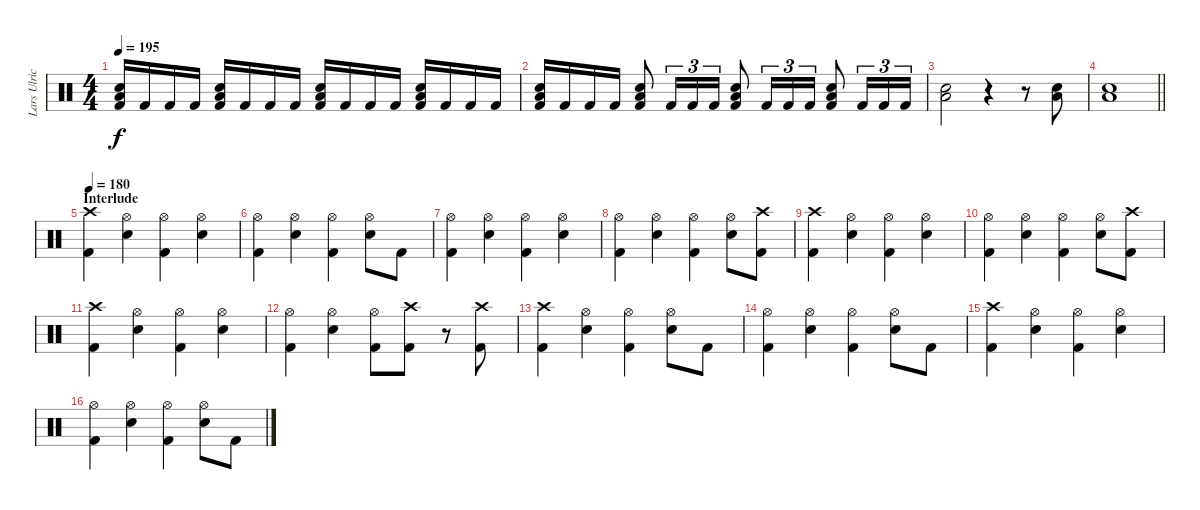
\track ("Lars Ulrich" "Lars Ulric") {instrument percussion}
\staff {score}
\articulation defaults
\ts (4 4)
\tempo 195
\clef neutral
\ks c
("Low Floor Tom (hit)" "Electric Snare (hit)" "Kick (hit) 2").16{dy f} "Kick (hit) 2".16 "Kick (hit) 2".16 "Kick (hit) 2".16 ("Low Floor Tom (hit)" "Electric Snare (hit)" "Kick (hit) 2").16 "Kick (hit) 2".16 "Kick (hit) 2".16 "Kick (hit) 2".16 ("Low Floor Tom (hit)" "Electric Snare (hit)" "Kick (hit) 2").16 "Kick (hit) 2".16 "Kick (hit) 2".16 "Kick (hit) 2".16 ("Low Floor Tom (hit)" "Electric Snare (hit)" "Kick (hit) 2").16 "Kick (hit) 2".16 "Kick (hit) 2".16 "Kick (hit) 2".16 |
("Low Floor Tom (hit)" "Electric Snare (hit)" "Kick (hit) 2").16 "Kick (hit) 2".16 "Kick (hit) 2".16 "Kick (hit) 2".16 ("Low Floor Tom (hit)" "Electric Snare (hit)" "Kick (hit) 2").8 "Kick (hit) 2".16{tu (3 2)} "Kick (hit) 2".16{tu (3 2)} "Kick (hit) 2".16{tu (3 2)} ("Low Floor Tom (hit)" "Electric Snare (hit)" "Kick (hit) 2").8 "Kick (hit) 2".16{tu (3 2)} "Kick (hit) 2".16{tu (3 2)} "Kick (hit) 2".16{tu (3 2)} ("Low Floor Tom (hit)" "Electric Snare (hit)" "Kick (hit) 2").8 "Kick (hit) 2".16{tu (3 2)} "Kick (hit) 2".16{tu (3 2)} "Kick (hit) 2".16{tu (3 2)} |
("Low Floor Tom (hit)" "Electric Snare (hit)").2 r.4 r.8 ("Low Floor Tom (hit)" "Electric Snare (hit)").8 |
\barLineRight lightlight
("Low Floor Tom (hit)" "Electric Snare (hit)").1 |
\section ("" "Interlude")
\tempo 180
("Crash high (hit)" "Kick (hit) 2").4 ("Hi-Hat (open)" "Electric Snare (hit)").4 ("Hi-Hat (open)" "Kick (hit) 2").4 ("Hi-Hat (open)" "Electric Snare (hit)").4 |
("Hi-Hat (open)" "Kick (hit) 2").4 ("Hi-Hat (open)" "Electric Snare (hit)").4 ("Hi-Hat (open)" "Kick (hit) 2").4 ("Hi-Hat (open)" "Electric Snare (hit)").8 "Kick (hit) 2".8 |
("Hi-Hat (open)" "Kick (hit) 2").4 ("Hi-Hat (open)" "Electric Snare (hit)").4 ("Hi-Hat (open)" "Kick (hit) 2").4 ("Hi-Hat (open)" "Electric Snare (hit)").4 |
("Hi-Hat (open)" "Kick (hit) 2").4 ("Hi-Hat (open)" "Electric Snare (hit)").4 ("Hi-Hat (open)" "Kick (hit) 2").4 ("Hi-Hat (open)" "Electric Snare (hit)").8 ("Crash high (hit)" "Kick (hit) 2").8 |
("Crash high (hit)" "Kick (hit) 2").4 ("Hi-Hat (open)" "Electric Snare (hit)").4 ("Hi-Hat (open)" "Kick (hit) 2").4 ("Hi-Hat (open)" "Electric Snare (hit)").4 |
("Hi-Hat (open)" "Kick (hit) 2").4 ("Hi-Hat (open)" "Electric Snare (hit)").4 ("Hi-Hat (open)" "Kick (hit) 2").4 ("Hi-Hat (open)" "Electric Snare (hit)").8 ("Crash high (hit)" "Kick (hit) 2").8 |
("Crash high (hit)" "Kick (hit) 2").4 ("Hi-Hat (open)" "Electric Snare (hit)").4 ("Hi-Hat (open)" "Kick (hit) 2").4 ("Hi-Hat (open)" "Electric Snare (hit)").4 |
("Hi-Hat (open)" "Kick (hit) 2").4 ("Hi-Hat (open)" "Electric Snare (hit)").4 ("Hi-Hat (open)" "Kick (hit) 2").8 ("Crash high (hit)" "Kick (hit) 2").8 r.8{volume 0} ("Crash high (hit)" "Kick (hit) 2").8{volume 14} |
("Crash high (hit)" "Kick (hit) 2").4 ("Hi-Hat (open)" "Electric Snare (hit)").4 ("Hi-Hat (open)" "Kick (hit) 2").4 ("Hi-Hat (open)" "Electric Snare (hit)").8 "Kick (hit) 2".8 |
("Hi-Hat (open)" "Kick (hit) 2").4 ("Hi-Hat (open)" "Electric Snare (hit)").4 ("Hi-Hat (open)" "Kick (hit) 2").4 ("Hi-Hat (open)" "Electric Snare (hit)").8 "Kick (hit) 2".8 |
("Crash high (hit)" "Kick (hit) 2").4 ("Hi-Hat (open)" "Electric Snare (hit)").4 ("Hi-Hat (open)" "Kick (hit) 2").4 ("Hi-Hat (open)" "Electric Snare (hit)").4 |
("Hi-Hat (open)" "Kick (hit) 2").4 ("Hi-Hat (open)" "Electric Snare (hit)").4 ("Hi-Hat (open)" "Kick (hit) 2").4 ("Hi-Hat (open)" "Electric Snare (hit)").8 "Kick (hit) 2".8
